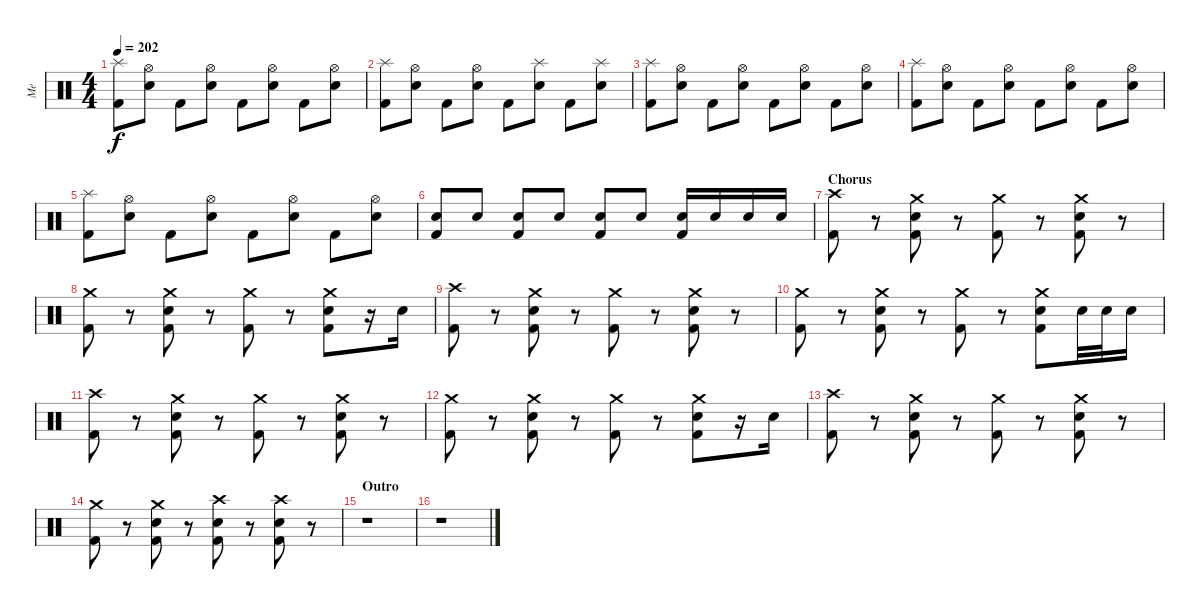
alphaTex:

\track ("Me" "Me") {instrument percussion}
\staff {score}
\articulation defaults
\ts (4 4)
\tempo 202
\clef neutral
\ks c
("Splash (hit)" "Kick (hit) 2").8{dy f} ("Hi-Hat (open)" "Electric Snare (hit)").8 "Kick (hit) 2".8 ("Hi-Hat (open)" "Electric Snare (hit)").8 "Kick (hit) 2".8 ("Hi-Hat (open)" "Electric Snare (hit)").8 "Kick (hit) 2".8 ("Hi-Hat (open)" "Electric Snare (hit)").8 |
("Splash (hit)" "Kick (hit) 2").8 ("Hi-Hat (open)" "Electric Snare (hit)").8 "Kick (hit) 2".8 ("Hi-Hat (open)" "Electric Snare (hit)").8 "Kick (hit) 2".8 ("Splash (hit)" "Electric Snare (hit)").8 "Kick (hit) 2".8 ("Splash (hit)" "Electric Snare (hit)").8 |
("Splash (hit)" "Kick (hit) 2").8 ("Hi-Hat (open)" "Electric Snare (hit)").8 "Kick (hit) 2".8 ("Hi-Hat (open)" "Electric Snare (hit)").8 "Kick (hit) 2".8 ("Hi-Hat (open)" "Electric Snare (hit)").8 "Kick (hit) 2".8 ("Hi-Hat (open)" "Electric Snare (hit)").8 |
("Splash (hit)" "Kick (hit) 2").8 ("Hi-Hat (open)" "Electric Snare (hit)").8 "Kick (hit) 2".8 ("Hi-Hat (open)" "Electric Snare (hit)").8 "Kick (hit) 2".8 ("Hi-Hat (open)" "Electric Snare (hit)").8 "Kick (hit) 2".8 ("Hi-Hat (open)" "Electric Snare (hit)").8 |
("Splash (hit)" "Kick (hit) 2").8 ("Hi-Hat (open)" "Electric Snare (hit)").8 "Kick (hit) 2".8 ("Hi-Hat (open)" "Electric Snare (hit)").8 "Kick (hit) 2".8 ("Hi-Hat (open)" "Electric Snare (hit)").8 "Kick (hit) 2".8 ("Hi-Hat (open)" "Electric Snare (hit)").8 |
("Electric Snare (hit)" "Kick (hit) 2").8 "Electric Snare (hit)".8 ("Electric Snare (hit)" "Kick (hit) 2").8 "Electric Snare (hit)".8 ("Electric Snare (hit)" "Kick (hit) 2").8 "Electric Snare (hit)".8 ("Electric Snare (hit)" "Kick (hit) 2").16 "Electric Snare (hit)".16 "Electric Snare (hit)".16 "Electric Snare (hit)".16 |
\section ("" "Chorus")
("Crash high (hit)" "Kick (hit) 2").8 r.8 ("Crash medium (hit)" "Electric Snare (hit)" "Kick (hit) 2").8 r.8 ("Crash medium (hit)" "Kick (hit) 2").8 r.8 ("Crash medium (hit)" "Electric Snare (hit)" "Kick (hit) 2").8 r.8 |
("Crash medium (hit)" "Kick (hit) 2").8 r.8 ("Crash medium (hit)" "Electric Snare (hit)" "Kick (hit) 2").8 r.8 ("Crash medium (hit)" "Kick (hit) 2").8 r.8 ("Crash medium (hit)" "Electric Snare (hit)" "Kick (hit) 2").8 r.16 "Electric Snare (hit)".16 |
("Crash high (hit)" "Kick (hit) 2").8 r.8 ("Crash medium (hit)" "Electric Snare (hit)" "Kick (hit) 2").8 r.8 ("Crash medium (hit)" "Kick (hit) 2").8 r.8 ("Crash medium (hit)" "Electric Snare (hit)" "Kick (hit) 2").8 r.8 |
("Crash medium (hit)" "Kick (hit) 2").8 r.8 ("Crash medium (hit)" "Electric Snare (hit)" "Kick (hit) 2").8 r.8 ("Crash medium (hit)" "Kick (hit) 2").8 r.8 ("Crash medium (hit)" "Electric Snare (hit)" "Kick (hit) 2").8 "Electric Snare (hit)".32 "Electric Snare (hit)".32 "Electric Snare (hit)".16 |
("Crash high (hit)" "Kick (hit) 2").8 r.8 ("Crash medium (hit)" "Electric Snare (hit)" "Kick (hit) 2").8 r.8 ("Crash medium (hit)" "Kick (hit) 2").8 r.8 ("Crash medium (hit)" "Electric Snare (hit)" "Kick (hit) 2").8 r.8 |
("Crash medium (hit)" "Kick (hit) 2").8 r.8 ("Crash medium (hit)" "Electric Snare (hit)" "Kick (hit) 2").8 r.8 ("Crash medium (hit)" "Kick (hit) 2").8 r.8 ("Crash medium (hit)" "Electric Snare (hit)" "Kick (hit) 2").8 r.16 "Electric Snare (hit)".16 |
("Crash high (hit)" "Kick (hit) 2").8 r.8 ("Crash medium (hit)" "Electric Snare (hit)" "Kick (hit) 2").8 r.8 ("Crash medium (hit)" "Kick (hit) 2").8 r.8 ("Crash medium (hit)" "Electric Snare (hit)" "Kick (hit) 2").8 r.8 |
("Crash medium (hit)" "Kick (hit) 2").8 r.8 ("Crash medium (hit)" "Electric Snare (hit)" "Kick (hit) 2").8 r.8 ("Crash high (hit)" "Electric Snare (hit)" "Kick (hit) 2").8 r.8 ("Crash high (hit)" "Electric Snare (hit)" "Kick (hit) 2").8 r.8 |
\section ("" "Outro")
r.1 |
r.1
